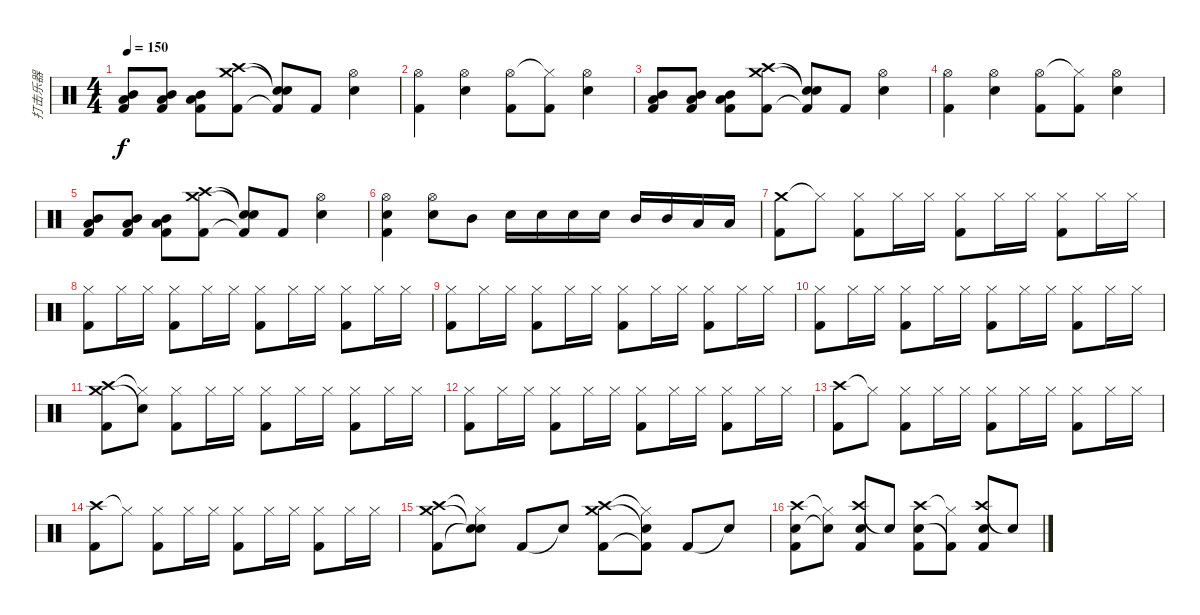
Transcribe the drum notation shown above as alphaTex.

\track ("打击乐器" "打击乐器") {instrument percussion}
\staff {score}
\articulation defaults
\ts (4 4)
\tempo 150
\clef neutral
\ks c
("Mid Tom (hit)" "Low Tom (hit)" "Kick (hit) 2").8{dy f} ("Mid Tom (hit)" "Low Tom (hit)" "Kick (hit) 2").8 ("Mid Tom (hit)" "Low Tom (hit)" "Kick (hit) 2").8 ("Crash high (hit)" "Crash medium (hit)" "Kick (hit) 2").8 ("Snare (hit)"{t} "Snare (hit)"{t} "Kick (hit) 2"{t}).8 "Kick (hit) 2".8 ("Hi-Hat (open)" "Snare (hit) 2").4 |
("Hi-Hat (open)" "Kick (hit) 2").4 ("Hi-Hat (open)" "Snare (hit) 2").4 ("Hi-Hat (open)" "Kick (hit) 2").8 ("Hi-Hat (closed)"{t} "Kick (hit) 2").8 ("Hi-Hat (open)" "Snare (hit) 2").4 |
("Mid Tom (hit)" "Low Tom (hit)" "Kick (hit) 2").8 ("Mid Tom (hit)" "Low Tom (hit)" "Kick (hit) 2").8 ("Mid Tom (hit)" "Low Tom (hit)" "Kick (hit) 2").8 ("Crash high (hit)" "Crash medium (hit)" "Kick (hit) 2").8 ("Snare (hit)"{t} "Snare (hit)"{t} "Kick (hit) 2"{t}).8 "Kick (hit) 2".8 ("Hi-Hat (open)" "Snare (hit) 2").4 |
("Hi-Hat (open)" "Kick (hit) 2").4 ("Hi-Hat (open)" "Snare (hit) 2").4 ("Hi-Hat (open)" "Kick (hit) 2").8 ("Hi-Hat (closed)"{t} "Kick (hit) 2").8 ("Hi-Hat (open)" "Snare (hit) 2").4 |
("Mid Tom (hit)" "Low Tom (hit)" "Kick (hit) 2").8 ("Mid Tom (hit)" "Low Tom (hit)" "Kick (hit) 2").8 ("Mid Tom (hit)" "Low Tom (hit)" "Kick (hit) 2").8 ("Crash high (hit)" "Crash medium (hit)" "Kick (hit) 2").8 ("Snare (hit)"{t} "Snare (hit)"{t} "Kick (hit) 2"{t}).8 "Kick (hit) 2".8 ("Hi-Hat (open)" "Snare (hit) 2").4 |
("Hi-Hat (open)" "Snare (hit) 2" "Kick (hit) 2").4 ("Hi-Hat (open)" "Snare (hit) 2").8 "Mid Tom (hit)".8 "Snare (hit) 2".16 "Snare (hit) 2".16 "Snare (hit) 2".16 "Snare (hit) 2".16 "Mid Tom (hit)".16 "Mid Tom (hit)".16 "Low Tom (hit)".16 "Low Tom (hit)".16 |
("Crash medium (hit)" "Kick (hit) 2").8 "Hi-Hat (closed)"{t}.8 ("Hi-Hat (closed)" "Kick (hit) 2").8 "Hi-Hat (closed)".16 "Hi-Hat (closed)".16 ("Hi-Hat (closed)" "Kick (hit) 2").8 "Hi-Hat (closed)".16 "Hi-Hat (closed)".16 ("Hi-Hat (closed)" "Kick (hit) 2").8 "Hi-Hat (closed)".16 "Hi-Hat (closed)".16 |
("Hi-Hat (closed)" "Kick (hit) 2").8 "Hi-Hat (closed)".16 "Hi-Hat (closed)".16 ("Hi-Hat (closed)" "Kick (hit) 2").8 "Hi-Hat (closed)".16 "Hi-Hat (closed)".16 ("Hi-Hat (closed)" "Kick (hit) 2").8 "Hi-Hat (closed)".16 "Hi-Hat (closed)".16 ("Hi-Hat (closed)" "Kick (hit) 2").8 "Hi-Hat (closed)".16 "Hi-Hat (closed)".16 |
("Hi-Hat (closed)" "Kick (hit) 2").8 "Hi-Hat (closed)".16 "Hi-Hat (closed)".16 ("Hi-Hat (closed)" "Kick (hit) 2").8 "Hi-Hat (closed)".16 "Hi-Hat (closed)".16 ("Hi-Hat (closed)" "Kick (hit) 2").8 "Hi-Hat (closed)".16 "Hi-Hat (closed)".16 ("Hi-Hat (closed)" "Kick (hit) 2").8 "Hi-Hat (closed)".16 "Hi-Hat (closed)".16 |
("Hi-Hat (closed)" "Kick (hit) 2").8 "Hi-Hat (closed)".16 "Hi-Hat (closed)".16 ("Hi-Hat (closed)" "Kick (hit) 2").8 "Hi-Hat (closed)".16 "Hi-Hat (closed)".16 ("Hi-Hat (closed)" "Kick (hit) 2").8 "Hi-Hat (closed)".16 "Hi-Hat (closed)".16 ("Hi-Hat (closed)" "Kick (hit) 2").8 "Hi-Hat (closed)".16 "Hi-Hat (closed)".16 |
("Crash high (hit)" "Crash medium (hit)" "Kick (hit) 2").8 ("Hi-Hat (closed)"{t} "Snare (hit)"{t}).8 ("Hi-Hat (closed)" "Kick (hit) 2").8 "Hi-Hat (closed)".16 "Hi-Hat (closed)".16 ("Hi-Hat (closed)" "Kick (hit) 2").8 "Hi-Hat (closed)".16 "Hi-Hat (closed)".16 ("Hi-Hat (closed)" "Kick (hit) 2").8 "Hi-Hat (closed)".16 "Hi-Hat (closed)".16 |
("Hi-Hat (closed)" "Kick (hit) 2").8 "Hi-Hat (closed)".16 "Hi-Hat (closed)".16 ("Hi-Hat (closed)" "Kick (hit) 2").8 "Hi-Hat (closed)".16 "Hi-Hat (closed)".16 ("Hi-Hat (closed)" "Kick (hit) 2").8 "Hi-Hat (closed)".16 "Hi-Hat (closed)".16 ("Hi-Hat (closed)" "Kick (hit) 2").8 "Hi-Hat (closed)".16 "Hi-Hat (closed)".16 |
("Crash high (hit)" "Kick (hit) 2").8 "Hi-Hat (closed)"{t}.8 ("Hi-Hat (closed)" "Kick (hit) 2").8 "Hi-Hat (closed)".16 "Hi-Hat (closed)".16 ("Hi-Hat (closed)" "Kick (hit) 2").8 "Hi-Hat (closed)".16 "Hi-Hat (closed)".16 ("Hi-Hat (closed)" "Kick (hit) 2").8 "Hi-Hat (closed)".16 "Hi-Hat (closed)".16 |
("Crash high (hit)" "Kick (hit) 2").8 "Hi-Hat (closed)"{t}.8 ("Hi-Hat (closed)" "Kick (hit) 2").8 "Hi-Hat (closed)".16 "Hi-Hat (closed)".16 ("Hi-Hat (closed)" "Kick (hit) 2").8 "Hi-Hat (closed)".16 "Hi-Hat (closed)".16 ("Hi-Hat (closed)" "Kick (hit) 2").8 "Hi-Hat (closed)".16 "Hi-Hat (closed)".16 |
("Crash high (hit)" "Crash medium (hit)" "Kick (hit) 2").8 ("Hi-Hat (closed)"{t} "Snare (hit)"{t} "Snare (hit)"{t}).8 "Kick (hit) 2".8 "Snare (hit)"{t}.8 ("Crash high (hit)" "Crash medium (hit)" "Kick (hit) 2").8 ("Hi-Hat (closed)"{t} "Snare (hit)"{t} "Kick (hit) 2"{t}).8 "Kick (hit) 2".8 "Snare (hit)"{t}.8 |
("Crash high (hit)" "Snare (hit) 2" "Kick (hit) 2").8 ("Hi-Hat (closed)"{t} "Snare (hit)"{t}).8 ("Crash high (hit)" "Snare (hit) 2" "Kick (hit) 2").8 "Snare (hit)"{t}.8 ("Crash high (hit)" "Snare (hit) 2" "Kick (hit) 2").8 ("Hi-Hat (closed)"{t} "Kick (hit) 2"{t}).8 ("Crash high (hit)" "Snare (hit) 2" "Kick (hit) 2").8 "Snare (hit)"{t}.8
